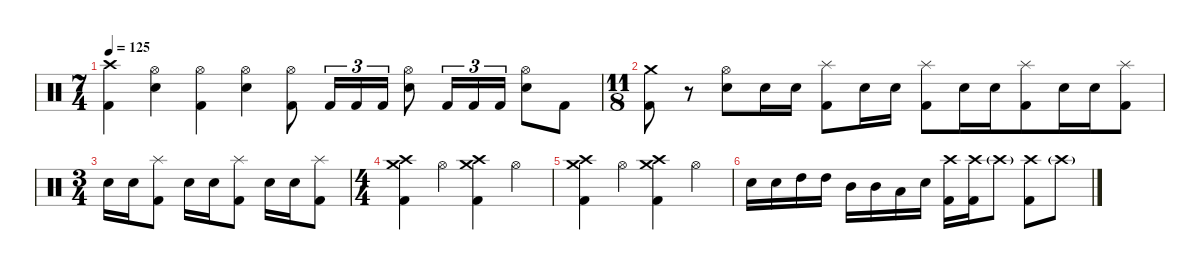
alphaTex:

\defaultSystemsLayout 4
\hideDynamics
\bracketExtendMode nobrackets
\singleTrackTrackNamePolicy hidden
\multiTrackTrackNamePolicy hidden
\otherSystemsTrackNameOrientation horizontal
\track ("Drums" "drm.") {defaultSystemsLayout 4 instrument percussion}
\staff {score}
\articulation defaults
\ts (7 4)
\beaming (8 2 2 2 8)
\tempo 125
\clef neutral
\ks c
("Kick (hit) 2" "Crash high (hit)").4{dy fff beam Down} ("Snare (hit) 2" "Hi-Hat (open)").4{beam Down} ("Kick (hit) 2" "Hi-Hat (open)").4{beam Down} ("Snare (hit) 2" "Hi-Hat (open)").4{beam Down} ("Kick (hit) 2" "Hi-Hat (open)").8{beam Down} "Kick (hit) 2".16{tu (3 2) beam Up} "Kick (hit) 2".16{tu (3 2) beam Up} "Kick (hit) 2".16{tu (3 2) beam Up} ("Snare (hit) 2" "Hi-Hat (open)").8{beam Down} "Kick (hit) 2".16{tu (3 2) beam Up} "Kick (hit) 2".16{tu (3 2) beam Up} "Kick (hit) 2".16{tu (3 2) beam Up} ("Snare (hit) 2" "Hi-Hat (open)").8{beam Down} "Kick (hit) 2".8{beam Down} |
\ts (11 8)
\beaming (8 2 2 2 5)
("Kick (hit) 2" "Crash medium (hit)").8{beam Down} r.8{beam Down} ("Snare (hit) 2" "Hi-Hat (open)").8{beam Down} "Snare (hit) 2".16{beam Down} "Snare (hit) 2".16{beam Down} ("Kick (hit) 2" "Splash (hit)").8{beam Down} "Snare (hit) 2".16{beam Down} "Snare (hit) 2".16{beam Down} ("Kick (hit) 2" "Splash (hit)").8{beam Down} "Snare (hit) 2".16{beam Down} "Snare (hit) 2".16{beam Down} ("Kick (hit) 2" "Splash (hit)").8{beam Down} "Snare (hit) 2".16{beam Down} "Snare (hit) 2".16{beam Down} ("Kick (hit) 2" "Splash (hit)").8{beam Down} |
\ts (3 4)
\beaming (8 2 2 2)
"Snare (hit) 2".16{beam Down} "Snare (hit) 2".16{beam Down} ("Kick (hit) 2" "Splash (hit)").8{beam Down} "Snare (hit) 2".16{beam Down} "Snare (hit) 2".16{beam Down} ("Kick (hit) 2" "Splash (hit)").8{beam Down} "Snare (hit) 2".16{beam Down} "Snare (hit) 2".16{beam Down} ("Kick (hit) 2" "Splash (hit)").8{beam Down} |
\ts (4 4)
\beaming (8 2 2 2 2)
("Kick (hit) 2" "Crash medium (hit)" "Crash high (hit)").4{beam Down} "Hi-Hat (open)".4{dy mp beam Down} ("Kick (hit) 2" "Crash medium (hit)" "Crash high (hit)").4{dy fff beam Down} "Hi-Hat (open)".4{dy mp beam Down} |
("Kick (hit) 2" "Crash medium (hit)" "Crash high (hit)").4{dy fff beam Down} "Hi-Hat (open)".4{dy mp beam Down} ("Kick (hit) 2" "Crash medium (hit)" "Crash high (hit)").4{dy fff beam Down} "Hi-Hat (open)".4{dy mp beam Down} |
"Snare (hit) 2".16{dy fff beam Down} "Snare (hit) 2".16{beam Down} "High Tom (hit)".16{beam Down} "High Tom (hit)".16{beam Down} "Mid Tom (hit)".16{beam Down} "Mid Tom (hit)".16{beam Down} "Low Tom (hit)".16{beam Down} "Snare (hit) 2".16{beam Down} ("Kick (hit) 2" "Crash high (hit)").16{beam Down} ("Kick (hit) 2" "Crash high (hit)").16{beam Down} "Crash high (hit)"{g}.8{dy pp beam Down} ("Kick (hit) 2" "Crash high (hit)").8{dy fff beam Down} "Crash high (hit)"{g}.8{dy pp beam Down}
